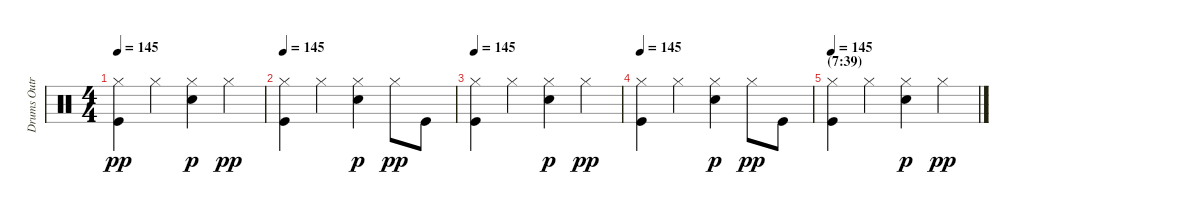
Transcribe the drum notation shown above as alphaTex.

\track ("Drums Outro" "Drums Outr") {instrument percussion}
\staff {score}
\articulation defaults
\ts (4 4)
\tempo 145
\clef neutral
\ks c
("Hi-Hat (closed)" "Kick (hit)").4{dy pp} "Hi-Hat (closed)".4 ("Hi-Hat (closed)" "Snare (hit) 2").4{dy p} "Hi-Hat (closed)".4{dy pp} |
\tempo 145
("Hi-Hat (closed)" "Kick (hit)").4{volume 12} "Hi-Hat (closed)".4 ("Hi-Hat (closed)" "Snare (hit) 2").4{dy p} "Hi-Hat (closed)".8{dy pp} "Kick (hit)".8 |
\tempo 145
("Hi-Hat (closed)" "Kick (hit)").4{volume 8} "Hi-Hat (closed)".4 ("Hi-Hat (closed)" "Snare (hit) 2").4{dy p} "Hi-Hat (closed)".4{dy pp} |
\tempo 145
("Hi-Hat (closed)" "Kick (hit)").4{volume 4} "Hi-Hat (closed)".4 ("Hi-Hat (closed)" "Snare (hit) 2").4{dy p} "Hi-Hat (closed)".8{dy pp} "Kick (hit)".8 |
\section ("" "(7:39)")
\tempo 145
("Hi-Hat (closed)" "Kick (hit)").4{volume 0} "Hi-Hat (closed)".4 ("Hi-Hat (closed)" "Snare (hit) 2").4{dy p} "Hi-Hat (closed)".4{dy pp}
